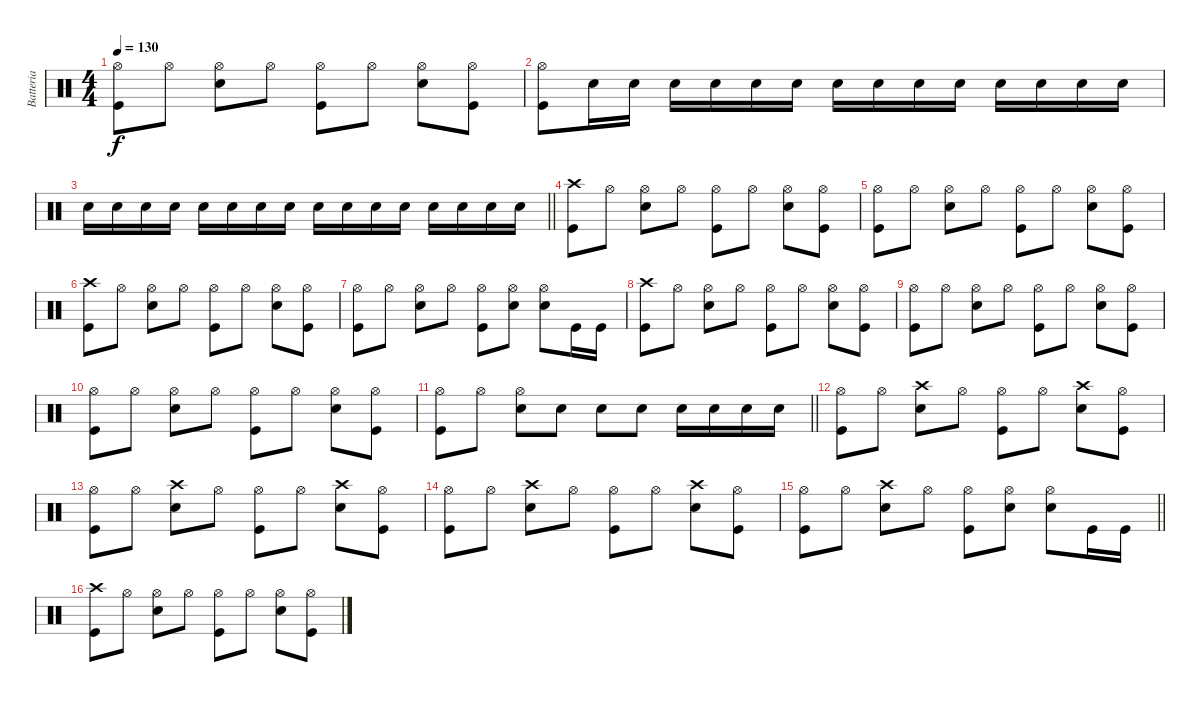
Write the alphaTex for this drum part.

\track ("Batteria" "Batteria") {instrument percussion}
\staff {score}
\articulation defaults
\ts (4 4)
\tempo 130
\clef neutral
\ks c
("Kick (hit)" "Hi-Hat (open)").8{dy f} "Hi-Hat (open)".8 ("Snare (hit) 2" "Hi-Hat (open)").8 "Hi-Hat (open)".8 ("Kick (hit)" "Hi-Hat (open)").8 "Hi-Hat (open)".8 ("Snare (hit) 2" "Hi-Hat (open)").8 ("Kick (hit)" "Hi-Hat (open)").8 |
("Kick (hit)" "Hi-Hat (open)").8 "Snare (hit) 2".16 "Snare (hit) 2".16 "Snare (hit) 2".16 "Snare (hit) 2".16 "Snare (hit) 2".16 "Snare (hit) 2".16 "Snare (hit) 2".16 "Snare (hit) 2".16 "Snare (hit) 2".16 "Snare (hit) 2".16 "Snare (hit) 2".16 "Snare (hit) 2".16 "Snare (hit) 2".16 "Snare (hit) 2".16 |
\barLineRight lightlight "Snare (hit) 2".16 "Snare (hit) 2".16 "Snare (hit) 2".16 "Snare (hit) 2".16 "Snare (hit) 2".16 "Snare (hit) 2".16 "Snare (hit) 2".16 "Snare (hit) 2".16 "Snare (hit) 2".16 "Snare (hit) 2".16 "Snare (hit) 2".16 "Snare (hit) 2".16 "Snare (hit) 2".16 "Snare (hit) 2".16 "Snare (hit) 2".16 "Snare (hit) 2".16
|
("Kick (hit)" "Crash high (hit)").8 "Hi-Hat (open)".8 ("Snare (hit) 2" "Hi-Hat (open)").8 "Hi-Hat (open)".8 ("Kick (hit)" "Hi-Hat (open)").8 "Hi-Hat (open)".8 ("Snare (hit) 2" "Hi-Hat (open)").8 ("Kick (hit)" "Hi-Hat (open)").8 |
("Kick (hit)" "Hi-Hat (open)").8 "Hi-Hat (open)".8 ("Snare (hit) 2" "Hi-Hat (open)").8 "Hi-Hat (open)".8 ("Kick (hit)" "Hi-Hat (open)").8 "Hi-Hat (open)".8 ("Snare (hit) 2" "Hi-Hat (open)").8 ("Kick (hit)" "Hi-Hat (open)").8 |
("Kick (hit)" "Crash high (hit)").8 "Hi-Hat (open)".8 ("Snare (hit) 2" "Hi-Hat (open)").8 "Hi-Hat (open)".8 ("Kick (hit)" "Hi-Hat (open)").8 "Hi-Hat (open)".8 ("Snare (hit) 2" "Hi-Hat (open)").8 ("Kick (hit)" "Hi-Hat (open)").8 |
("Kick (hit)" "Hi-Hat (open)").8 "Hi-Hat (open)".8 ("Snare (hit) 2" "Hi-Hat (open)").8 "Hi-Hat (open)".8 ("Kick (hit)" "Hi-Hat (open)").8 ("Hi-Hat (open)" "Snare (hit) 2").8 ("Snare (hit) 2" "Hi-Hat (open)").8 "Kick (hit)".16 "Kick (hit)".16 |
("Kick (hit)" "Crash high (hit)").8 "Hi-Hat (open)".8 ("Snare (hit) 2" "Hi-Hat (open)").8 "Hi-Hat (open)".8 ("Kick (hit)" "Hi-Hat (open)").8 "Hi-Hat (open)".8 ("Snare (hit) 2" "Hi-Hat (open)").8 ("Kick (hit)" "Hi-Hat (open)").8 |
("Kick (hit)" "Hi-Hat (open)").8 "Hi-Hat (open)".8 ("Snare (hit) 2" "Hi-Hat (open)").8 "Hi-Hat (open)".8 ("Kick (hit)" "Hi-Hat (open)").8 "Hi-Hat (open)".8 ("Snare (hit) 2" "Hi-Hat (open)").8 ("Kick (hit)" "Hi-Hat (open)").8 |
("Kick (hit)" "Hi-Hat (open)").8 "Hi-Hat (open)".8 ("Snare (hit) 2" "Hi-Hat (open)").8 "Hi-Hat (open)".8 ("Kick (hit)" "Hi-Hat (open)").8 "Hi-Hat (open)".8 ("Snare (hit) 2" "Hi-Hat (open)").8 ("Kick (hit)" "Hi-Hat (open)").8 |
\barLineRight lightlight
("Kick (hit)" "Hi-Hat (open)").8 "Hi-Hat (open)".8 ("Snare (hit) 2" "Hi-Hat (open)").8 "Snare (hit) 2".8 "Snare (hit) 2".8 "Snare (hit) 2".8 "Snare (hit) 2".16 "Snare (hit) 2".16 "Snare (hit) 2".16 "Snare (hit) 2".16 |
("Kick (hit)" "Hi-Hat (open)").8 "Hi-Hat (open)".8 ("Snare (hit) 2" "Crash high (hit)").8 "Hi-Hat (open)".8 ("Kick (hit)" "Hi-Hat (open)").8 "Hi-Hat (open)".8 ("Snare (hit) 2" "Crash high (hit)").8 ("Kick (hit)" "Hi-Hat (open)").8 |
("Kick (hit)" "Hi-Hat (open)").8 "Hi-Hat (open)".8 ("Snare (hit) 2" "Crash high (hit)").8 "Hi-Hat (open)".8 ("Kick (hit)" "Hi-Hat (open)").8 "Hi-Hat (open)".8 ("Snare (hit) 2" "Crash high (hit)").8 ("Kick (hit)" "Hi-Hat (open)").8 |
("Kick (hit)" "Hi-Hat (open)").8 "Hi-Hat (open)".8 ("Snare (hit) 2" "Crash high (hit)").8 "Hi-Hat (open)".8 ("Kick (hit)" "Hi-Hat (open)").8 "Hi-Hat (open)".8 ("Snare (hit) 2" "Crash high (hit)").8 ("Kick (hit)" "Hi-Hat (open)").8 |
\barLineRight lightlight
("Kick (hit)" "Hi-Hat (open)").8 "Hi-Hat (open)".8 ("Snare (hit) 2" "Crash high (hit)").8 "Hi-Hat (open)".8 ("Kick (hit)" "Hi-Hat (open)").8 ("Hi-Hat (open)" "Snare (hit) 2").8 ("Snare (hit) 2" "Hi-Hat (open)").8 "Kick (hit)".16 "Kick (hit)".16 |
("Kick (hit)" "Crash high (hit)").8 "Hi-Hat (open)".8 ("Snare (hit) 2" "Hi-Hat (open)").8 "Hi-Hat (open)".8 ("Kick (hit)" "Hi-Hat (open)").8 "Hi-Hat (open)".8 ("Snare (hit) 2" "Hi-Hat (open)").8 ("Kick (hit)" "Hi-Hat (open)").8
